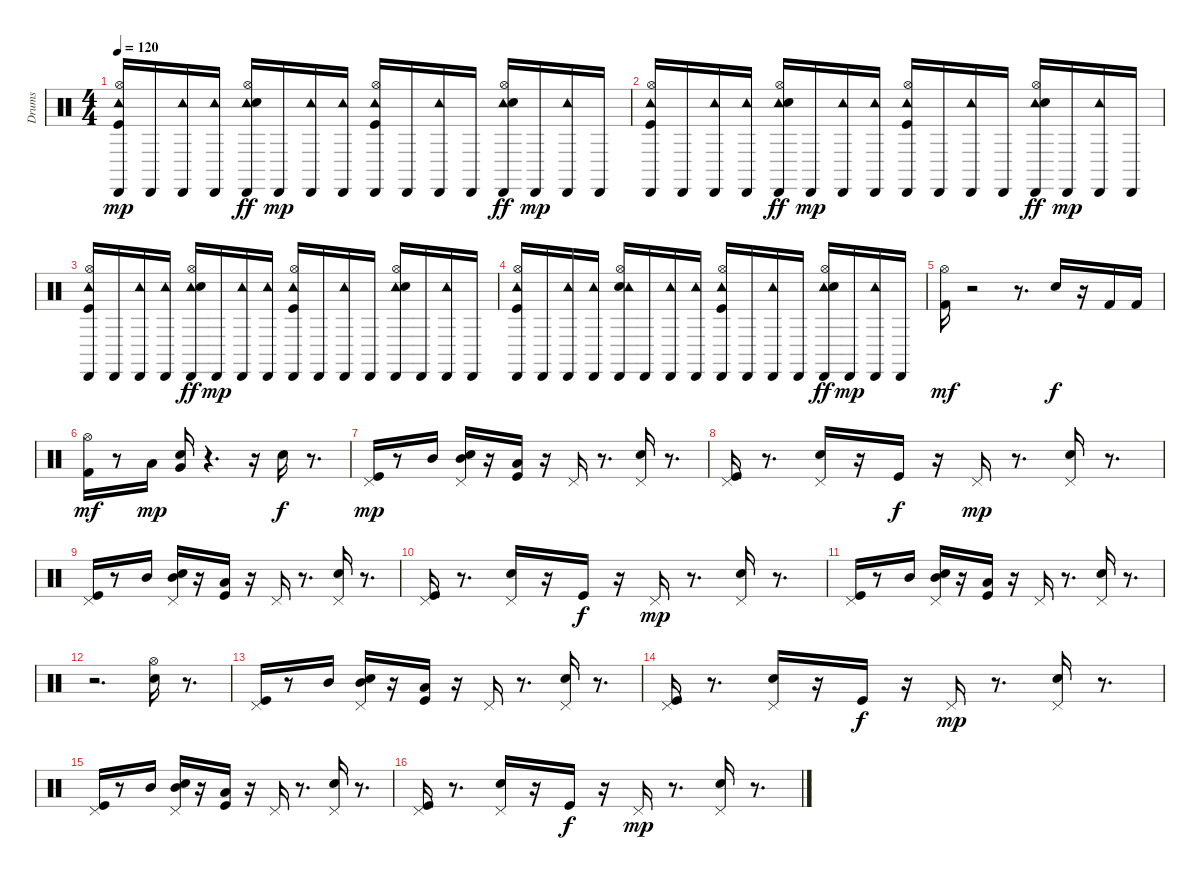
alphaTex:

\track ("Drums" "Drums") {instrument percussion}
\staff {score}
\articulation defaults
\ts (4 4)
\tempo 120
\clef neutral
\ks c
("Cabasa (hit)" "Kick (hit)" "Hi-Hat (open)" "Tambourine (hit)").16{dy mp} "Cabasa (hit)".16 ("Cabasa (hit)" "Tambourine (hit)").16 ("Cabasa (hit)" "Tambourine (hit)").16 ("Cabasa (hit)" "Tambourine (hit)" "Hi-Hat (open)" "Electric Snare (hit)").16{dy ff} "Cabasa (hit)".16{dy mp} ("Tambourine (hit)" "Cabasa (hit)").16 ("Cabasa (hit)" "Tambourine (hit)").16 ("Cabasa (hit)" "Tambourine (hit)" "Hi-Hat (open)" "Kick (hit)").16 "Cabasa (hit)".16 ("Cabasa (hit)" "Tambourine (hit)").16 "Cabasa (hit)".16 ("Cabasa (hit)" "Tambourine (hit)" "Hi-Hat (open)" "Electric Snare (hit)").16{dy ff} "Cabasa (hit)".16{dy mp} ("Tambourine (hit)" "Cabasa (hit)").16 "Cabasa (hit)".16 |
("Cabasa (hit)" "Tambourine (hit)" "Hi-Hat (open)" "Kick (hit)").16 "Cabasa (hit)".16 ("Cabasa (hit)" "Tambourine (hit)").16 ("Cabasa (hit)" "Tambourine (hit)").16 ("Cabasa (hit)" "Hi-Hat (open)" "Tambourine (hit)" "Electric Snare (hit)").16{dy ff} "Cabasa (hit)".16{dy mp} ("Tambourine (hit)" "Cabasa (hit)").16 ("Tambourine (hit)" "Cabasa (hit)").16 ("Cabasa (hit)" "Hi-Hat (open)" "Kick (hit)" "Tambourine (hit)").16 "Cabasa (hit)".16 ("Tambourine (hit)" "Cabasa (hit)").16 "Cabasa (hit)".16 ("Cabasa (hit)" "Hi-Hat (open)" "Tambourine (hit)" "Electric Snare (hit)").16{dy ff} "Cabasa (hit)".16{dy mp} ("Tambourine (hit)" "Cabasa (hit)").16 "Cabasa (hit)".16 |
("Tambourine (hit)" "Cabasa (hit)" "Hi-Hat (open)" "Kick (hit)").16 "Cabasa (hit)".16 ("Cabasa (hit)" "Tambourine (hit)").16 ("Cabasa (hit)" "Tambourine (hit)").16 ("Hi-Hat (open)" "Cabasa (hit)" "Tambourine (hit)" "Electric Snare (hit)").16{dy ff} "Cabasa (hit)".16{dy mp} ("Cabasa (hit)" "Tambourine (hit)").16 ("Cabasa (hit)" "Tambourine (hit)").16 ("Cabasa (hit)" "Tambourine (hit)" "Kick (hit)" "Hi-Hat (open)").16 "Cabasa (hit)".16 ("Tambourine (hit)" "Cabasa (hit)").16 "Cabasa (hit)".16 ("Tambourine (hit)" "Electric Snare (hit)" "Hi-Hat (open)" "Cabasa (hit)").16 "Cabasa (hit)".16 ("Tambourine (hit)" "Cabasa (hit)").16 "Cabasa (hit)".16 |
("Hi-Hat (open)" "Kick (hit)" "Tambourine (hit)" "Cabasa (hit)").16 "Cabasa (hit)".16 ("Cabasa (hit)" "Tambourine (hit)").16 ("Tambourine (hit)" "Cabasa (hit)").16 ("Electric Snare (hit)" "Cabasa (hit)" "Tambourine (hit)" "Hi-Hat (open)").16 "Cabasa (hit)".16 ("Cabasa (hit)" "Tambourine (hit)").16 ("Tambourine (hit)" "Cabasa (hit)").16 ("Kick (hit)" "Cabasa (hit)" "Hi-Hat (open)" "Tambourine (hit)").16 "Cabasa (hit)".16 ("Tambourine (hit)" "Cabasa (hit)").16 "Cabasa (hit)".16 ("Hi-Hat (open)" "Tambourine (hit)" "Cabasa (hit)" "Electric Snare (hit)").16{dy ff} "Cabasa (hit)".16{dy mp} ("Tambourine (hit)" "Cabasa (hit)").16 "Cabasa (hit)".16 |
("Kick (hit) 2" "Hi-Hat (open)").16{dy mf} r.2 r.8{d} "Hand Clap (hit)".16{dy f} r.16 "Kick (hit) 2".16 "Kick (hit) 2".16 |
("Hi-Hat (open)" "Kick (hit) 2").16{dy mf} r.8 "Low Tom (hit)".16{dy mp} ("Very Low Tom (hit)" "Hand Clap (hit)").16 r.4{d} r.16 "Hand Clap (hit)".16{dy f} r.8{d} |
("Pedal Hi-Hat (hit)" "Kick (hit)").16{dy mp} r.8 "Mid Tom (hit)".16 ("Mid Tom (hit)" "Pedal Hi-Hat (hit)" "Hand Clap (hit)").16 r.16 ("Low Floor Tom (hit)" "Kick (hit)").16 r.16 "Pedal Hi-Hat (hit)".16 r.8{d} ("Pedal Hi-Hat (hit)" "Hand Clap (hit)").16 r.8{d} |
("Pedal Hi-Hat (hit)" "Kick (hit)").16 r.8{d} ("Pedal Hi-Hat (hit)" "Hand Clap (hit)").16 r.16 "Kick (hit)".16{dy f} r.16 "Pedal Hi-Hat (hit)".16{dy mp} r.8{d} ("Pedal Hi-Hat (hit)" "Hand Clap (hit)").16 r.8{d} |
("Pedal Hi-Hat (hit)" "Kick (hit)").16 r.8 "Mid Tom (hit)".16 ("Hand Clap (hit)" "Pedal Hi-Hat (hit)" "Mid Tom (hit)").16 r.16 ("Low Floor Tom (hit)" "Kick (hit)").16 r.16 "Pedal Hi-Hat (hit)".16 r.8{d} ("Pedal Hi-Hat (hit)" "Hand Clap (hit)").16 r.8{d} |
("Pedal Hi-Hat (hit)" "Kick (hit)").16 r.8{d} ("Pedal Hi-Hat (hit)" "Hand Clap (hit)").16 r.16 "Kick (hit)".16{dy f} r.16 "Pedal Hi-Hat (hit)".16{dy mp} r.8{d} ("Pedal Hi-Hat (hit)" "Hand Clap (hit)").16 r.8{d} |
("Pedal Hi-Hat (hit)" "Kick (hit)").16 r.8 "Mid Tom (hit)".16 ("Hand Clap (hit)" "Pedal Hi-Hat (hit)" "Mid Tom (hit)").16 r.16 ("Low Floor Tom (hit)" "Kick (hit)").16 r.16 "Pedal Hi-Hat (hit)".16 r.8{d} ("Pedal Hi-Hat (hit)" "Hand Clap (hit)").16 r.8{d} |
r.2{d} ("Hand Clap (hit)" "Hi-Hat (open)").16 r.8{d} |
("Kick (hit)" "Pedal Hi-Hat (hit)").16 r.8 "Mid Tom (hit)".16 ("Hand Clap (hit)" "Pedal Hi-Hat (hit)" "Mid Tom (hit)").16 r.16 ("Low Floor Tom (hit)" "Kick (hit)").16 r.16 "Pedal Hi-Hat (hit)".16 r.8{d} ("Pedal Hi-Hat (hit)" "Hand Clap (hit)").16 r.8{d} |
("Pedal Hi-Hat (hit)" "Kick (hit)").16 r.8{d} ("Pedal Hi-Hat (hit)" "Hand Clap (hit)").16 r.16 "Kick (hit)".16{dy f} r.16 "Pedal Hi-Hat (hit)".16{dy mp} r.8{d} ("Pedal Hi-Hat (hit)" "Hand Clap (hit)").16 r.8{d} |
("Pedal Hi-Hat (hit)" "Kick (hit)").16 r.8 "Mid Tom (hit)".16 ("Mid Tom (hit)" "Pedal Hi-Hat (hit)" "Hand Clap (hit)").16 r.16 ("Kick (hit)" "Low Floor Tom (hit)").16 r.16 "Pedal Hi-Hat (hit)".16 r.8{d} ("Pedal Hi-Hat (hit)" "Hand Clap (hit)").16 r.8{d} |
("Pedal Hi-Hat (hit)" "Kick (hit)").16 r.8{d} ("Pedal Hi-Hat (hit)" "Hand Clap (hit)").16 r.16 "Kick (hit)".16{dy f} r.16 "Pedal Hi-Hat (hit)".16{dy mp} r.8{d} ("Pedal Hi-Hat (hit)" "Hand Clap (hit)").16 r.8{d}
